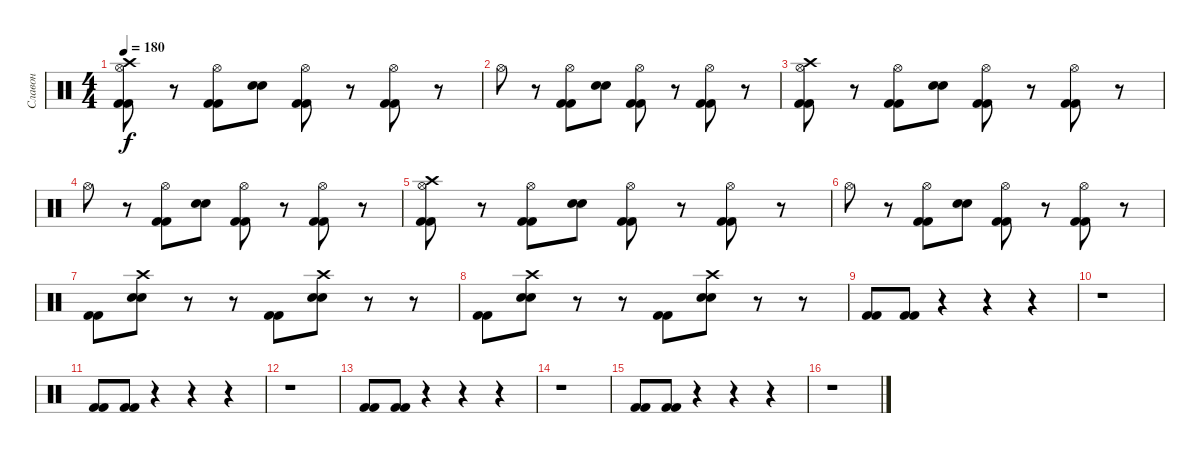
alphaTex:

\track ("Славон" "Славон") {instrument percussion}
\staff {score}
\articulation defaults
\ts (4 4)
\tempo 180
\clef neutral
\ks c
("Hi-Hat (open)" "Kick (hit) 2" "Kick (hit) 2" "Crash high (hit)").8{dy f} r.8 ("Hi-Hat (open)" "Kick (hit) 2" "Kick (hit) 2").8 ("Electric Snare (hit)" "Electric Snare (hit)").8 ("Hi-Hat (open)" "Kick (hit) 2" "Kick (hit) 2").8 r.8 ("Hi-Hat (open)" "Kick (hit) 2" "Kick (hit) 2").8 r.8 |
"Hi-Hat (open)".8 r.8 ("Hi-Hat (open)" "Kick (hit) 2" "Kick (hit) 2").8 ("Electric Snare (hit)" "Electric Snare (hit)").8 ("Hi-Hat (open)" "Kick (hit) 2" "Kick (hit) 2").8 r.8 ("Hi-Hat (open)" "Kick (hit) 2" "Kick (hit) 2").8 r.8 |
("Hi-Hat (open)" "Kick (hit) 2" "Kick (hit) 2" "Crash high (hit)").8 r.8 ("Hi-Hat (open)" "Kick (hit) 2" "Kick (hit) 2").8 ("Electric Snare (hit)" "Electric Snare (hit)").8 ("Hi-Hat (open)" "Kick (hit) 2" "Kick (hit) 2").8 r.8 ("Hi-Hat (open)" "Kick (hit) 2" "Kick (hit) 2").8 r.8 |
"Hi-Hat (open)".8 r.8 ("Hi-Hat (open)" "Kick (hit) 2" "Kick (hit) 2").8 ("Electric Snare (hit)" "Electric Snare (hit)").8 ("Hi-Hat (open)" "Kick (hit) 2" "Kick (hit) 2").8 r.8 ("Hi-Hat (open)" "Kick (hit) 2" "Kick (hit) 2").8 r.8 |
("Hi-Hat (open)" "Kick (hit) 2" "Kick (hit) 2" "Crash high (hit)").8 r.8 ("Hi-Hat (open)" "Kick (hit) 2" "Kick (hit) 2").8 ("Electric Snare (hit)" "Electric Snare (hit)").8 ("Hi-Hat (open)" "Kick (hit) 2" "Kick (hit) 2").8 r.8 ("Hi-Hat (open)" "Kick (hit) 2" "Kick (hit) 2").8 r.8 |
"Hi-Hat (open)".8 r.8 ("Hi-Hat (open)" "Kick (hit) 2" "Kick (hit) 2").8 ("Electric Snare (hit)" "Electric Snare (hit)").8 ("Hi-Hat (open)" "Kick (hit) 2" "Kick (hit) 2").8 r.8 ("Hi-Hat (open)" "Kick (hit) 2" "Kick (hit) 2").8 r.8 |
("Kick (hit) 2" "Kick (hit) 2").8 ("Crash high (hit)" "Electric Snare (hit)" "Electric Snare (hit)").8 r.8 r.8 ("Kick (hit) 2" "Kick (hit) 2").8 ("Crash high (hit)" "Electric Snare (hit)" "Electric Snare (hit)").8 r.8 r.8 |
("Kick (hit) 2" "Kick (hit) 2").8 ("Crash high (hit)" "Electric Snare (hit)" "Electric Snare (hit)").8 r.8 r.8 ("Kick (hit) 2" "Kick (hit) 2").8 ("Crash high (hit)" "Electric Snare (hit)" "Electric Snare (hit)").8 r.8 r.8 |
("Kick (hit) 2" "Kick (hit) 2").8 ("Kick (hit) 2" "Kick (hit) 2").8 r.4 r.4 r.4 |
r.1 |
("Kick (hit) 2" "Kick (hit) 2").8 ("Kick (hit) 2" "Kick (hit) 2").8 r.4 r.4 r.4 |
r.1 |
("Kick (hit) 2" "Kick (hit) 2").8 ("Kick (hit) 2" "Kick (hit) 2").8 r.4 r.4 r.4 |
r.1 |
("Kick (hit) 2" "Kick (hit) 2").8 ("Kick (hit) 2" "Kick (hit) 2").8 r.4 r.4 r.4 |
r.1
